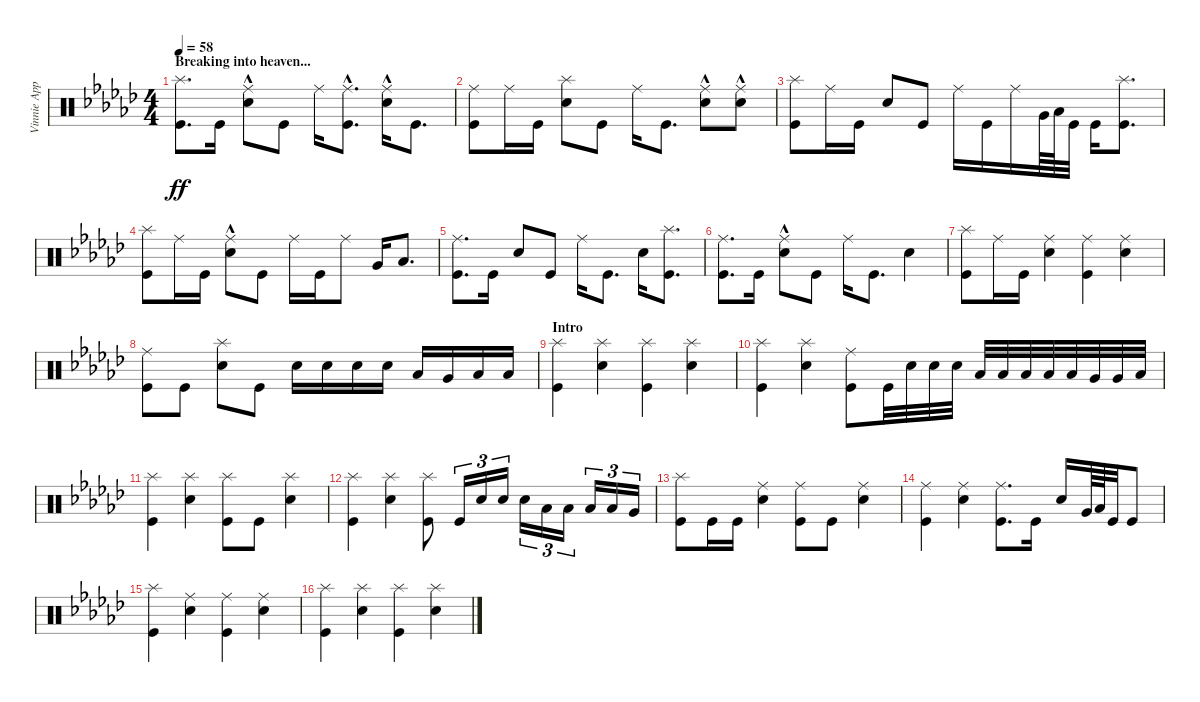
\track ("Vinnie Appice" "Vinnie App") {instrument percussion}
\staff {score}
\articulation defaults
\ts (4 4)
\section ("" "Breaking into heaven...")
\tempo 58
\clef neutral
\ks ebminor
("Kick (hit)" "Splash (hit)").8{d dy ff} "Kick (hit)".16 ("Snare (hit) 2" "Ride (middle)"{hac}).8 "Kick (hit)".8 "Ride (middle)".16 ("Kick (hit)" "Ride (middle)"{hac}).8{d} ("Snare (hit) 2" "Ride (middle)"{hac}).16 "Kick (hit)".8{d} |
("Kick (hit)" "Ride (middle)").8 "Ride (middle)".16 "Kick (hit)".16 ("Snare (hit) 2" "Splash (hit)").8 "Kick (hit)".8 "Ride (middle)".16 "Kick (hit)".8{d} ("Snare (hit) 2" "Ride (middle)"{hac}).8 ("Snare (hit) 2" "Ride (middle)"{hac}).8 |
("Kick (hit)" "Splash (hit)").8 "Ride (middle)".16 "Kick (hit)".16 "Snare (hit) 2".8 "Kick (hit)".8 "Ride (middle)".16 "Kick (hit)".16 "Ride (middle)".16 "Very Low Tom (hit)".64 "Low Floor Tom (hit)".64 "Kick (hit)".32 "Kick (hit)".16 ("Kick (hit)" "Splash (hit)").8{d} |
("Kick (hit)" "Splash (hit)").8 "Ride (middle)".16 "Kick (hit)".16 ("Snare (hit) 2" "Ride (middle)"{hac}).8 "Kick (hit)".8 "Ride (middle)".16 "Kick (hit)".16 "Ride (middle)".8 "Very Low Tom (hit)".16 "Low Floor Tom (hit)".8{d} |
("Kick (hit)" "Ride (middle)").8{d} "Kick (hit)".16 "Snare (hit) 2".8 "Kick (hit)".8 "Ride (middle)".16 "Kick (hit)".8{d} "Snare (hit) 2".16 ("Kick (hit)" "Splash (hit)").8{d} |
("Kick (hit)" "Ride (middle)").8{d} "Kick (hit)".16 ("Snare (hit) 2" "Ride (middle)"{hac}).8 "Kick (hit)".8 "Ride (middle)".16 "Kick (hit)".8{d} "Snare (hit) 2".4 |
("Kick (hit)" "Splash (hit)").8 "Ride (middle)".16 "Kick (hit)".16 ("Snare (hit) 2" "Ride (middle)").4 ("Kick (hit)" "Ride (middle)").4 ("Snare (hit) 2" "Ride (middle)").4 |
("Kick (hit)" "Ride (middle)").8 "Kick (hit)".8 ("Splash (hit)" "Snare (hit) 2").8 "Kick (hit)".8 "Snare (hit) 2".16 "Snare (hit) 2".16 "Snare (hit) 2".16 "Snare (hit) 2".16 "Low Tom (hit)".16 "Very Low Tom (hit)".16 "Low Floor Tom (hit)".16 "Low Floor Tom (hit)".16 |
\section ("" "Intro")
("Kick (hit)" "Splash (hit)").4 ("Snare (hit) 2" "Splash (hit)").4 ("Kick (hit)" "Splash (hit)").4 ("Snare (hit) 2" "Splash (hit)").4 |
("Kick (hit)" "Splash (hit)").4 ("Snare (hit) 2" "Splash (hit)").4 ("Kick (hit)" "Ride (middle)").8 "Kick (hit)".32 "Snare (hit) 2".32 "Snare (hit) 2".32 "Snare (hit) 2".32 "Low Tom (hit)".32 "Low Tom (hit)".32 "Low Tom (hit)".32 "Low Tom (hit)".32 "Low Tom (hit)".32 "Very Low Tom (hit)".32 "Very Low Tom (hit)".32 "Low Floor Tom (hit)".32 |
("Kick (hit)" "Splash (hit)").4 ("Snare (hit) 2" "Splash (hit)").4 ("Kick (hit)" "Splash (hit)").8 "Kick (hit)".8 ("Snare (hit) 2" "Splash (hit)").4 |
("Kick (hit)" "Splash (hit)").4 ("Snare (hit) 2" "Splash (hit)").4 ("Kick (hit)" "Splash (hit)").8 "Kick (hit)".16{tu (3 2)} "Snare (hit) 2".16{tu (3 2)} "Snare (hit) 2".16{tu (3 2)} "Snare (hit) 2".16{tu (3 2)} "Low Tom (hit)".16{tu (3 2)} "Low Tom (hit)".16{tu (3 2)} "Low Tom (hit)".16{tu (3 2)} "Low Tom (hit)".16{tu (3 2)} "Very Low Tom (hit)".16{tu (3 2)} |
("Kick (hit)" "Splash (hit)").8 "Kick (hit)".16 "Kick (hit)".16 ("Ride (middle)" "Snare (hit) 2").4 ("Kick (hit)" "Ride (middle)").8 "Kick (hit)".8 ("Snare (hit) 2" "Ride (middle)").4 |
("Kick (hit)" "Ride (middle)").4 ("Ride (middle)" "Snare (hit) 2").4 ("Ride (middle)" "Kick (hit)").8{d} "Kick (hit)".16 "Snare (hit) 2".16 "Very Low Tom (hit)".64 "Low Floor Tom (hit)".64 "Kick (hit)".32 "Kick (hit)".8 |
("Kick (hit)" "Splash (hit)").4 ("Snare (hit) 2" "Ride (middle)").4 ("Kick (hit)" "Ride (middle)").4 ("Snare (hit) 2" "Ride (middle)").4 |
("Kick (hit)" "Splash (hit)").4 ("Snare (hit) 2" "Splash (hit)").4 ("Kick (hit)" "Splash (hit)").4 ("Snare (hit) 2" "Splash (hit)").4
